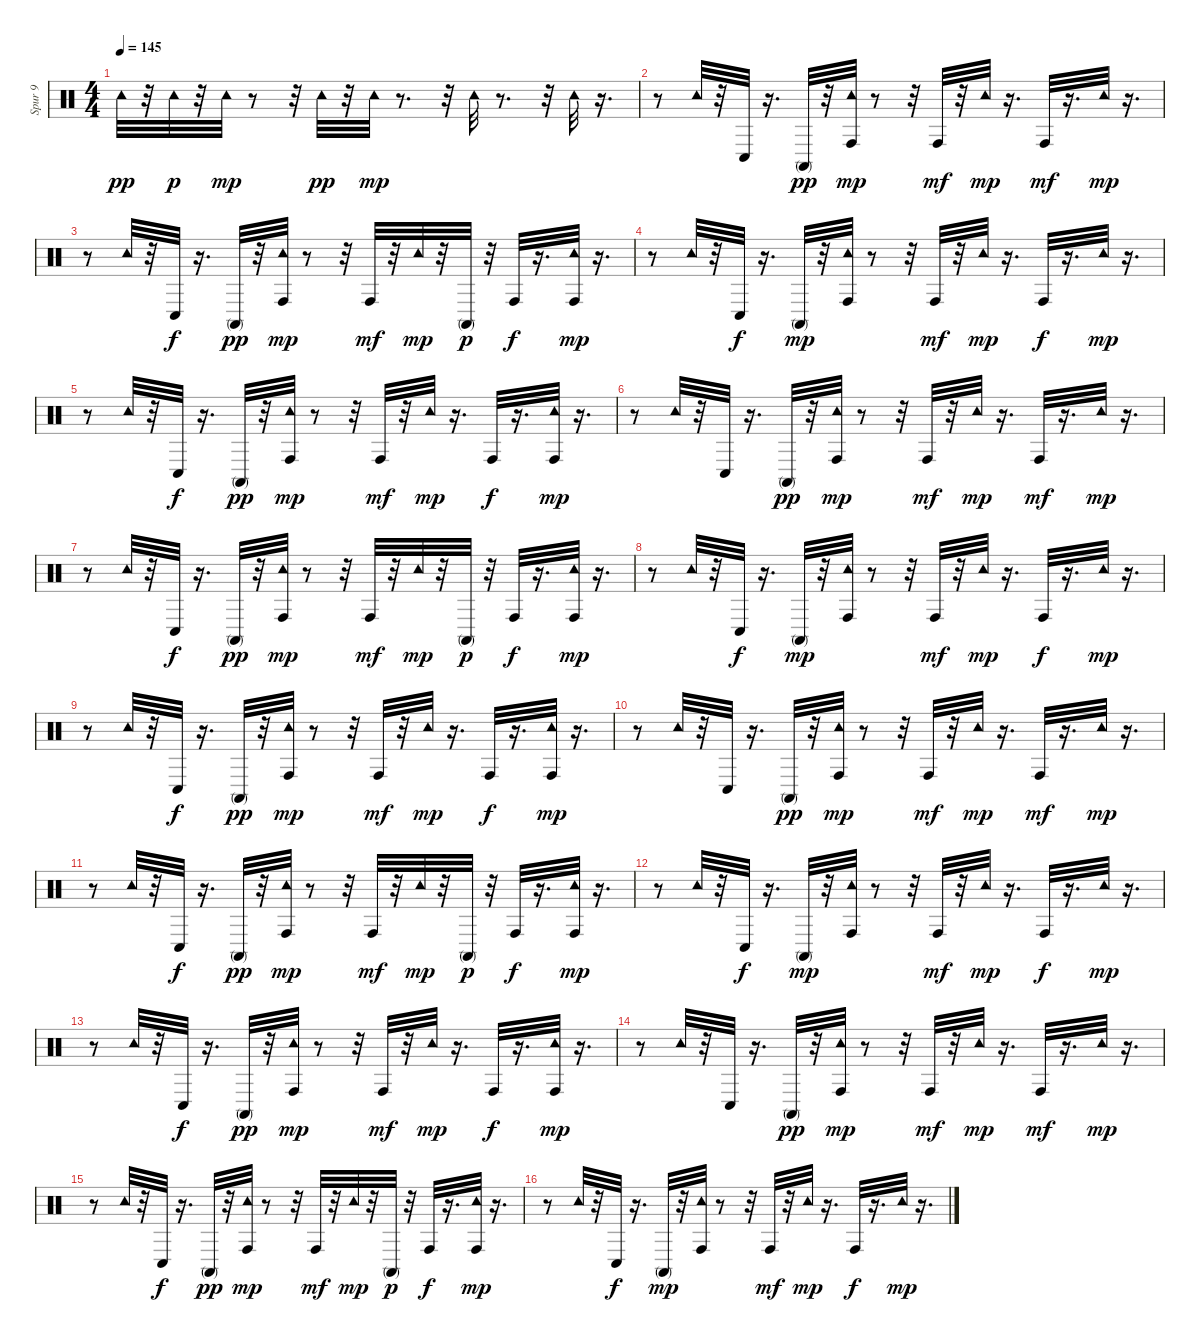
\track ("Spur 9" "Spur 9") {instrument percussion}
\staff {score}
\articulation defaults
\ts (4 4)
\tempo 145
\clef neutral
\ks c "Tambourine (hit)".32{dy pp}
r.32 "Tambourine (hit)".32{dy p} r.32 "Tambourine (hit)".32{dy mp} r.8 r.32 "Tambourine (hit)".32{dy pp} r.32 "Tambourine (hit)".32{dy mp} r.8{d} r.32 "Tambourine (hit)".32 r.8{d} r.32 "Tambourine (hit)".32 r.16{d} |
r.8 "Tambourine (hit)".32 r.32 "Conga low (hit)".32 r.16{d} "Conga high (mute)".32{dy pp} r.32 ("Conga high (hit)" "Tambourine (hit)").32{dy mp} r.8 r.32 "Conga high (hit)".32{dy mf} r.32 "Tambourine (hit)".32{dy mp} r.16{d} "Conga high (hit)".32{dy mf} r.16{d} "Tambourine (hit)".32{dy mp} r.16{d} |
r.8 "Tambourine (hit)".32 r.32 "Conga low (hit)".32{dy f} r.16{d} "Conga high (mute)".32{dy pp} r.32 ("Conga high (hit)" "Tambourine (hit)").32{dy mp} r.8 r.32 "Conga high (hit)".32{dy mf} r.32 "Tambourine (hit)".32{dy mp} r.32 "Conga high (mute)".32{dy p} r.32 "Conga high (hit)".32{dy f} r.16{d} ("Conga high (hit)" "Tambourine (hit)").32{dy mp} r.16{d} |
r.8 "Tambourine (hit)".32 r.32 "Conga low (hit)".32{dy f} r.16{d} "Conga high (mute)".32{dy mp} r.32 ("Conga high (hit)" "Tambourine (hit)").32 r.8 r.32 "Conga high (hit)".32{dy mf} r.32 "Tambourine (hit)".32{dy mp} r.16{d} "Conga high (hit)".32{dy f} r.16{d} "Tambourine (hit)".32{dy mp} r.16{d} |
r.8 "Tambourine (hit)".32 r.32 "Conga low (hit)".32{dy f} r.16{d} "Conga high (mute)".32{dy pp} r.32 ("Conga high (hit)" "Tambourine (hit)").32{dy mp} r.8 r.32 "Conga high (hit)".32{dy mf} r.32 "Tambourine (hit)".32{dy mp} r.16{d} "Conga high (hit)".32{dy f} r.16{d} ("Conga high (hit)" "Tambourine (hit)").32{dy mp} r.16{d} |
r.8 "Tambourine (hit)".32 r.32 "Conga low (hit)".32 r.16{d} "Conga high (mute)".32{dy pp} r.32 ("Conga high (hit)" "Tambourine (hit)").32{dy mp} r.8 r.32 "Conga high (hit)".32{dy mf} r.32 "Tambourine (hit)".32{dy mp} r.16{d} "Conga high (hit)".32{dy mf} r.16{d} "Tambourine (hit)".32{dy mp} r.16{d} |
r.8 "Tambourine (hit)".32 r.32 "Conga low (hit)".32{dy f} r.16{d} "Conga high (mute)".32{dy pp} r.32 ("Conga high (hit)" "Tambourine (hit)").32{dy mp} r.8 r.32 "Conga high (hit)".32{dy mf} r.32 "Tambourine (hit)".32{dy mp} r.32 "Conga high (mute)".32{dy p} r.32 "Conga high (hit)".32{dy f} r.16{d} ("Conga high (hit)" "Tambourine (hit)").32{dy mp} r.16{d} |
r.8 "Tambourine (hit)".32 r.32 "Conga low (hit)".32{dy f} r.16{d} "Conga high (mute)".32{dy mp} r.32 ("Conga high (hit)" "Tambourine (hit)").32 r.8 r.32 "Conga high (hit)".32{dy mf} r.32 "Tambourine (hit)".32{dy mp} r.16{d} "Conga high (hit)".32{dy f} r.16{d} "Tambourine (hit)".32{dy mp} r.16{d} |
r.8 "Tambourine (hit)".32 r.32 "Conga low (hit)".32{dy f} r.16{d} "Conga high (mute)".32{dy pp} r.32 ("Conga high (hit)" "Tambourine (hit)").32{dy mp} r.8 r.32 "Conga high (hit)".32{dy mf} r.32 "Tambourine (hit)".32{dy mp} r.16{d} "Conga high (hit)".32{dy f} r.16{d} ("Conga high (hit)" "Tambourine (hit)").32{dy mp} r.16{d} |
r.8 "Tambourine (hit)".32 r.32 "Conga low (hit)".32 r.16{d} "Conga high (mute)".32{dy pp} r.32 ("Conga high (hit)" "Tambourine (hit)").32{dy mp} r.8 r.32 "Conga high (hit)".32{dy mf} r.32 "Tambourine (hit)".32{dy mp} r.16{d} "Conga high (hit)".32{dy mf} r.16{d} "Tambourine (hit)".32{dy mp} r.16{d} |
r.8 "Tambourine (hit)".32 r.32 "Conga low (hit)".32{dy f} r.16{d} "Conga high (mute)".32{dy pp} r.32 ("Conga high (hit)" "Tambourine (hit)").32{dy mp} r.8 r.32 "Conga high (hit)".32{dy mf} r.32 "Tambourine (hit)".32{dy mp} r.32 "Conga high (mute)".32{dy p} r.32 "Conga high (hit)".32{dy f} r.16{d} ("Conga high (hit)" "Tambourine (hit)").32{dy mp} r.16{d} |
r.8 "Tambourine (hit)".32 r.32 "Conga low (hit)".32{dy f} r.16{d} "Conga high (mute)".32{dy mp} r.32 ("Conga high (hit)" "Tambourine (hit)").32 r.8 r.32 "Conga high (hit)".32{dy mf} r.32 "Tambourine (hit)".32{dy mp} r.16{d} "Conga high (hit)".32{dy f} r.16{d} "Tambourine (hit)".32{dy mp} r.16{d} |
r.8 "Tambourine (hit)".32 r.32 "Conga low (hit)".32{dy f} r.16{d} "Conga high (mute)".32{dy pp} r.32 ("Conga high (hit)" "Tambourine (hit)").32{dy mp} r.8 r.32 "Conga high (hit)".32{dy mf} r.32 "Tambourine (hit)".32{dy mp} r.16{d} "Conga high (hit)".32{dy f} r.16{d} ("Conga high (hit)" "Tambourine (hit)").32{dy mp} r.16{d} |
r.8 "Tambourine (hit)".32 r.32 "Conga low (hit)".32 r.16{d} "Conga high (mute)".32{dy pp} r.32 ("Conga high (hit)" "Tambourine (hit)").32{dy mp} r.8 r.32 "Conga high (hit)".32{dy mf} r.32 "Tambourine (hit)".32{dy mp} r.16{d} "Conga high (hit)".32{dy mf} r.16{d} "Tambourine (hit)".32{dy mp} r.16{d} |
r.8 "Tambourine (hit)".32 r.32 "Conga low (hit)".32{dy f} r.16{d} "Conga high (mute)".32{dy pp} r.32 ("Conga high (hit)" "Tambourine (hit)").32{dy mp} r.8 r.32 "Conga high (hit)".32{dy mf} r.32 "Tambourine (hit)".32{dy mp} r.32 "Conga high (mute)".32{dy p} r.32 "Conga high (hit)".32{dy f} r.16{d} ("Conga high (hit)" "Tambourine (hit)").32{dy mp} r.16{d} |
r.8 "Tambourine (hit)".32 r.32 "Conga low (hit)".32{dy f} r.16{d} "Conga high (mute)".32{dy mp} r.32 ("Conga high (hit)" "Tambourine (hit)").32 r.8 r.32 "Conga high (hit)".32{dy mf} r.32 "Tambourine (hit)".32{dy mp} r.16{d} "Conga high (hit)".32{dy f} r.16{d} "Tambourine (hit)".32{dy mp} r.16{d}
